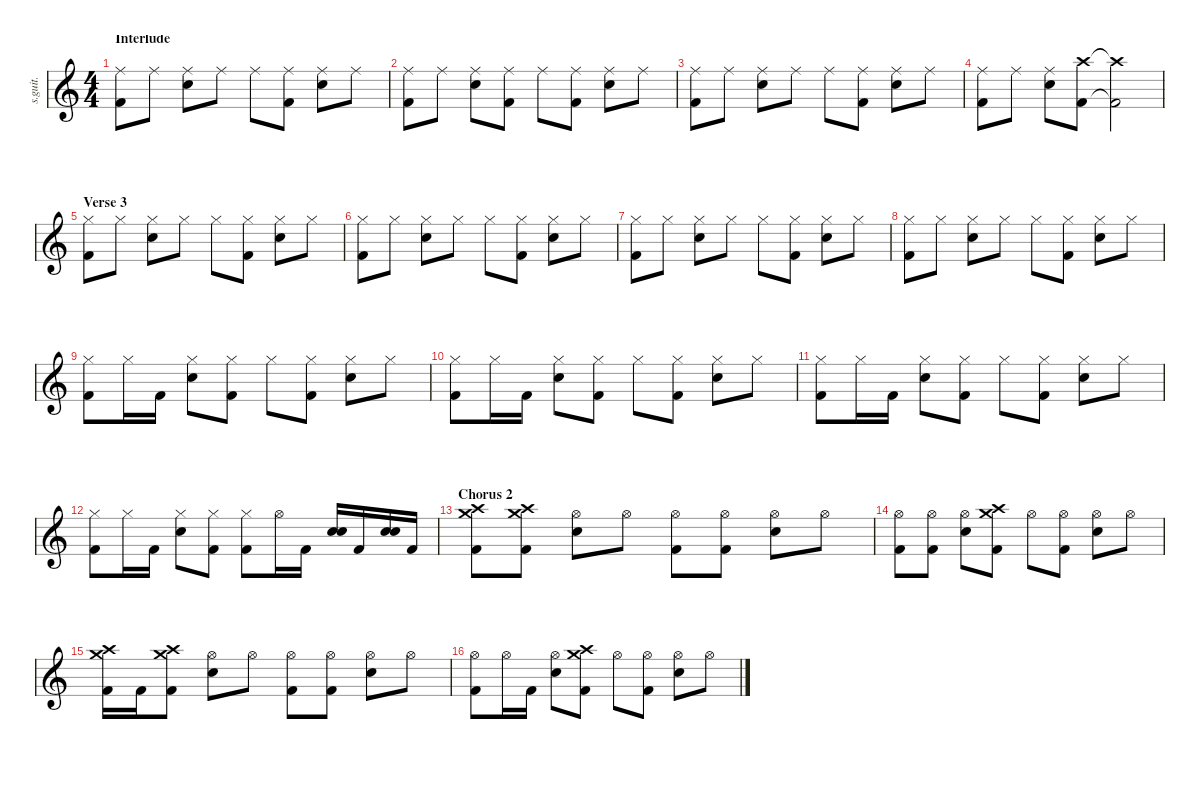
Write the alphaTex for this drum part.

\defaultSystemsLayout 4
\hideDynamics
\bracketExtendMode nobrackets
\track ("Drums (Pat Wilson)" "s.guit.") {instrument percussion}
\staff {score}
\articulation defaults
\ts (4 4)
\section ("" "Interlude")
\tempo (76 hide)
\clef g2
\ks c
("Ride (middle)" "Kick (hit) 2").8{lyrics (0 "") lyrics (1 "") lyrics (2 "") lyrics (3 "") lyrics (4 "") lyrics (5 "") lyrics (6 "") lyrics (7 "") lyrics (8 "") lyrics (9 "") dy f} "Ride (middle)".8{lyrics (0 "") lyrics (1 "") lyrics (2 "") lyrics (3 "") lyrics (4 "") lyrics (5 "") lyrics (6 "") lyrics (7 "") lyrics (8 "") lyrics (9 "")} ("Ride (middle)" "Snare (hit) 2").8{lyrics (0 "") lyrics (1 "") lyrics (2 "") lyrics (3 "") lyrics (4 "") lyrics (5 "") lyrics (6 "") lyrics (7 "") lyrics (8 "") lyrics (9 "")} "Ride (middle)".8{lyrics (0 "") lyrics (1 "") lyrics (2 "") lyrics (3 "") lyrics (4 "") lyrics (5 "") lyrics (6 "") lyrics (7 "") lyrics (8 "") lyrics (9 "")} "Ride (middle)".8{lyrics (0 "") lyrics (1 "") lyrics (2 "") lyrics (3 "") lyrics (4 "") lyrics (5 "") lyrics (6 "") lyrics (7 "") lyrics (8 "") lyrics (9 "")} ("Ride (middle)" "Kick (hit) 2").8{lyrics (0 "") lyrics (1 "") lyrics (2 "") lyrics (3 "") lyrics (4 "") lyrics (5 "") lyrics (6 "") lyrics (7 "") lyrics (8 "") lyrics (9 "")} ("Ride (middle)" "Snare (hit) 2").8{lyrics (0 "") lyrics (1 "") lyrics (2 "") lyrics (3 "") lyrics (4 "") lyrics (5 "") lyrics (6 "") lyrics (7 "") lyrics (8 "") lyrics (9 "")} "Ride (middle)".8{lyrics (0 "") lyrics (1 "") lyrics (2 "") lyrics (3 "") lyrics (4 "") lyrics (5 "") lyrics (6 "") lyrics (7 "") lyrics (8 "") lyrics (9 "")} |
("Ride (middle)" "Kick (hit) 2").8{lyrics (0 "") lyrics (1 "") lyrics (2 "") lyrics (3 "") lyrics (4 "") lyrics (5 "") lyrics (6 "") lyrics (7 "") lyrics (8 "") lyrics (9 "")} "Ride (middle)".8{lyrics (0 "") lyrics (1 "") lyrics (2 "") lyrics (3 "") lyrics (4 "") lyrics (5 "") lyrics (6 "") lyrics (7 "") lyrics (8 "") lyrics (9 "")} ("Ride (middle)" "Snare (hit) 2").8{lyrics (0 "") lyrics (1 "") lyrics (2 "") lyrics (3 "") lyrics (4 "") lyrics (5 "") lyrics (6 "") lyrics (7 "") lyrics (8 "") lyrics (9 "")} ("Ride (middle)" "Kick (hit) 2").8{lyrics (0 "") lyrics (1 "") lyrics (2 "") lyrics (3 "") lyrics (4 "") lyrics (5 "") lyrics (6 "") lyrics (7 "") lyrics (8 "") lyrics (9 "")} "Ride (middle)".8{lyrics (0 "") lyrics (1 "") lyrics (2 "") lyrics (3 "") lyrics (4 "") lyrics (5 "") lyrics (6 "") lyrics (7 "") lyrics (8 "") lyrics (9 "")} ("Ride (middle)" "Kick (hit) 2").8{lyrics (0 "") lyrics (1 "") lyrics (2 "") lyrics (3 "") lyrics (4 "") lyrics (5 "") lyrics (6 "") lyrics (7 "") lyrics (8 "") lyrics (9 "")} ("Ride (middle)" "Snare (hit) 2").8{lyrics (0 "") lyrics (1 "") lyrics (2 "") lyrics (3 "") lyrics (4 "") lyrics (5 "") lyrics (6 "") lyrics (7 "") lyrics (8 "") lyrics (9 "")} "Ride (middle)".8{lyrics (0 "") lyrics (1 "") lyrics (2 "") lyrics (3 "") lyrics (4 "") lyrics (5 "") lyrics (6 "") lyrics (7 "") lyrics (8 "") lyrics (9 "")} |
("Ride (middle)" "Kick (hit) 2").8{lyrics (0 "") lyrics (1 "") lyrics (2 "") lyrics (3 "") lyrics (4 "") lyrics (5 "") lyrics (6 "") lyrics (7 "") lyrics (8 "") lyrics (9 "")} "Ride (middle)".8{lyrics (0 "") lyrics (1 "") lyrics (2 "") lyrics (3 "") lyrics (4 "") lyrics (5 "") lyrics (6 "") lyrics (7 "") lyrics (8 "") lyrics (9 "")} ("Ride (middle)" "Snare (hit) 2").8{lyrics (0 "") lyrics (1 "") lyrics (2 "") lyrics (3 "") lyrics (4 "") lyrics (5 "") lyrics (6 "") lyrics (7 "") lyrics (8 "") lyrics (9 "")} "Ride (middle)".8{lyrics (0 "") lyrics (1 "") lyrics (2 "") lyrics (3 "") lyrics (4 "") lyrics (5 "") lyrics (6 "") lyrics (7 "") lyrics (8 "") lyrics (9 "")} "Ride (middle)".8{lyrics (0 "") lyrics (1 "") lyrics (2 "") lyrics (3 "") lyrics (4 "") lyrics (5 "") lyrics (6 "") lyrics (7 "") lyrics (8 "") lyrics (9 "")} ("Ride (middle)" "Kick (hit) 2").8{lyrics (0 "") lyrics (1 "") lyrics (2 "") lyrics (3 "") lyrics (4 "") lyrics (5 "") lyrics (6 "") lyrics (7 "") lyrics (8 "") lyrics (9 "")} ("Ride (middle)" "Snare (hit) 2").8{lyrics (0 "") lyrics (1 "") lyrics (2 "") lyrics (3 "") lyrics (4 "") lyrics (5 "") lyrics (6 "") lyrics (7 "") lyrics (8 "") lyrics (9 "")} "Ride (middle)".8{lyrics (0 "") lyrics (1 "") lyrics (2 "") lyrics (3 "") lyrics (4 "") lyrics (5 "") lyrics (6 "") lyrics (7 "") lyrics (8 "") lyrics (9 "")} |
("Ride (middle)" "Kick (hit) 2").8{lyrics (0 "") lyrics (1 "") lyrics (2 "") lyrics (3 "") lyrics (4 "") lyrics (5 "") lyrics (6 "") lyrics (7 "") lyrics (8 "") lyrics (9 "")} "Ride (middle)".8{lyrics (0 "") lyrics (1 "") lyrics (2 "") lyrics (3 "") lyrics (4 "") lyrics (5 "") lyrics (6 "") lyrics (7 "") lyrics (8 "") lyrics (9 "")} ("Ride (middle)" "Snare (hit) 2").8{lyrics (0 "") lyrics (1 "") lyrics (2 "") lyrics (3 "") lyrics (4 "") lyrics (5 "") lyrics (6 "") lyrics (7 "") lyrics (8 "") lyrics (9 "")} ("Crash high (hit)" "Kick (hit) 2").8{lyrics (0 "") lyrics (1 "") lyrics (2 "") lyrics (3 "") lyrics (4 "") lyrics (5 "") lyrics (6 "") lyrics (7 "") lyrics (8 "") lyrics (9 "")} ("Crash high (hit)"{t} "Kick (hit) 2"{t}).2{lyrics (0 "") lyrics (1 "") lyrics (2 "") lyrics (3 "") lyrics (4 "") lyrics (5 "") lyrics (6 "") lyrics (7 "") lyrics (8 "") lyrics (9 "")} |
\section ("" "Verse 3")
("Hi-Hat (closed)" "Kick (hit) 2").8{lyrics (0 "") lyrics (1 "") lyrics (2 "") lyrics (3 "") lyrics (4 "") lyrics (5 "") lyrics (6 "") lyrics (7 "") lyrics (8 "") lyrics (9 "")} "Hi-Hat (closed)".8{lyrics (0 "") lyrics (1 "") lyrics (2 "") lyrics (3 "") lyrics (4 "") lyrics (5 "") lyrics (6 "") lyrics (7 "") lyrics (8 "") lyrics (9 "")} ("Hi-Hat (closed)" "Snare (hit) 2").8{lyrics (0 "") lyrics (1 "") lyrics (2 "") lyrics (3 "") lyrics (4 "") lyrics (5 "") lyrics (6 "") lyrics (7 "") lyrics (8 "") lyrics (9 "")} "Hi-Hat (closed)".8{lyrics (0 "") lyrics (1 "") lyrics (2 "") lyrics (3 "") lyrics (4 "") lyrics (5 "") lyrics (6 "") lyrics (7 "") lyrics (8 "") lyrics (9 "")} "Hi-Hat (closed)".8{lyrics (0 "") lyrics (1 "") lyrics (2 "") lyrics (3 "") lyrics (4 "") lyrics (5 "") lyrics (6 "") lyrics (7 "") lyrics (8 "") lyrics (9 "")} ("Hi-Hat (closed)" "Kick (hit) 2").8{lyrics (0 "") lyrics (1 "") lyrics (2 "") lyrics (3 "") lyrics (4 "") lyrics (5 "") lyrics (6 "") lyrics (7 "") lyrics (8 "") lyrics (9 "")} ("Hi-Hat (closed)" "Snare (hit) 2").8{lyrics (0 "") lyrics (1 "") lyrics (2 "") lyrics (3 "") lyrics (4 "") lyrics (5 "") lyrics (6 "") lyrics (7 "") lyrics (8 "") lyrics (9 "")} "Hi-Hat (closed)".8{lyrics (0 "") lyrics (1 "") lyrics (2 "") lyrics (3 "") lyrics (4 "") lyrics (5 "") lyrics (6 "") lyrics (7 "") lyrics (8 "") lyrics (9 "")} |
("Hi-Hat (closed)" "Kick (hit) 2").8{lyrics (0 "") lyrics (1 "") lyrics (2 "") lyrics (3 "") lyrics (4 "") lyrics (5 "") lyrics (6 "") lyrics (7 "") lyrics (8 "") lyrics (9 "")} "Hi-Hat (closed)".8{lyrics (0 "") lyrics (1 "") lyrics (2 "") lyrics (3 "") lyrics (4 "") lyrics (5 "") lyrics (6 "") lyrics (7 "") lyrics (8 "") lyrics (9 "")} ("Hi-Hat (closed)" "Snare (hit) 2").8{lyrics (0 "") lyrics (1 "") lyrics (2 "") lyrics (3 "") lyrics (4 "") lyrics (5 "") lyrics (6 "") lyrics (7 "") lyrics (8 "") lyrics (9 "")} "Hi-Hat (closed)".8{lyrics (0 "") lyrics (1 "") lyrics (2 "") lyrics (3 "") lyrics (4 "") lyrics (5 "") lyrics (6 "") lyrics (7 "") lyrics (8 "") lyrics (9 "")} "Hi-Hat (closed)".8{lyrics (0 "") lyrics (1 "") lyrics (2 "") lyrics (3 "") lyrics (4 "") lyrics (5 "") lyrics (6 "") lyrics (7 "") lyrics (8 "") lyrics (9 "")} ("Hi-Hat (closed)" "Kick (hit) 2").8{lyrics (0 "") lyrics (1 "") lyrics (2 "") lyrics (3 "") lyrics (4 "") lyrics (5 "") lyrics (6 "") lyrics (7 "") lyrics (8 "") lyrics (9 "")} ("Hi-Hat (closed)" "Snare (hit) 2").8{lyrics (0 "") lyrics (1 "") lyrics (2 "") lyrics (3 "") lyrics (4 "") lyrics (5 "") lyrics (6 "") lyrics (7 "") lyrics (8 "") lyrics (9 "")} "Hi-Hat (closed)".8{lyrics (0 "") lyrics (1 "") lyrics (2 "") lyrics (3 "") lyrics (4 "") lyrics (5 "") lyrics (6 "") lyrics (7 "") lyrics (8 "") lyrics (9 "")} |
("Hi-Hat (closed)" "Kick (hit) 2").8{lyrics (0 "") lyrics (1 "") lyrics (2 "") lyrics (3 "") lyrics (4 "") lyrics (5 "") lyrics (6 "") lyrics (7 "") lyrics (8 "") lyrics (9 "")} "Hi-Hat (closed)".8{lyrics (0 "") lyrics (1 "") lyrics (2 "") lyrics (3 "") lyrics (4 "") lyrics (5 "") lyrics (6 "") lyrics (7 "") lyrics (8 "") lyrics (9 "")} ("Hi-Hat (closed)" "Snare (hit) 2").8{lyrics (0 "") lyrics (1 "") lyrics (2 "") lyrics (3 "") lyrics (4 "") lyrics (5 "") lyrics (6 "") lyrics (7 "") lyrics (8 "") lyrics (9 "")} "Hi-Hat (closed)".8{lyrics (0 "") lyrics (1 "") lyrics (2 "") lyrics (3 "") lyrics (4 "") lyrics (5 "") lyrics (6 "") lyrics (7 "") lyrics (8 "") lyrics (9 "")} "Hi-Hat (closed)".8{lyrics (0 "") lyrics (1 "") lyrics (2 "") lyrics (3 "") lyrics (4 "") lyrics (5 "") lyrics (6 "") lyrics (7 "") lyrics (8 "") lyrics (9 "")} ("Hi-Hat (closed)" "Kick (hit) 2").8{lyrics (0 "") lyrics (1 "") lyrics (2 "") lyrics (3 "") lyrics (4 "") lyrics (5 "") lyrics (6 "") lyrics (7 "") lyrics (8 "") lyrics (9 "")} ("Hi-Hat (closed)" "Snare (hit) 2").8{lyrics (0 "") lyrics (1 "") lyrics (2 "") lyrics (3 "") lyrics (4 "") lyrics (5 "") lyrics (6 "") lyrics (7 "") lyrics (8 "") lyrics (9 "")} "Hi-Hat (closed)".8{lyrics (0 "") lyrics (1 "") lyrics (2 "") lyrics (3 "") lyrics (4 "") lyrics (5 "") lyrics (6 "") lyrics (7 "") lyrics (8 "") lyrics (9 "")} |
("Hi-Hat (closed)" "Kick (hit) 2").8{lyrics (0 "") lyrics (1 "") lyrics (2 "") lyrics (3 "") lyrics (4 "") lyrics (5 "") lyrics (6 "") lyrics (7 "") lyrics (8 "") lyrics (9 "")} "Hi-Hat (closed)".8{lyrics (0 "") lyrics (1 "") lyrics (2 "") lyrics (3 "") lyrics (4 "") lyrics (5 "") lyrics (6 "") lyrics (7 "") lyrics (8 "") lyrics (9 "")} ("Hi-Hat (closed)" "Snare (hit) 2").8{lyrics (0 "") lyrics (1 "") lyrics (2 "") lyrics (3 "") lyrics (4 "") lyrics (5 "") lyrics (6 "") lyrics (7 "") lyrics (8 "") lyrics (9 "")} "Hi-Hat (closed)".8{lyrics (0 "") lyrics (1 "") lyrics (2 "") lyrics (3 "") lyrics (4 "") lyrics (5 "") lyrics (6 "") lyrics (7 "") lyrics (8 "") lyrics (9 "")} "Hi-Hat (closed)".8{lyrics (0 "") lyrics (1 "") lyrics (2 "") lyrics (3 "") lyrics (4 "") lyrics (5 "") lyrics (6 "") lyrics (7 "") lyrics (8 "") lyrics (9 "")} ("Hi-Hat (closed)" "Kick (hit) 2").8{lyrics (0 "") lyrics (1 "") lyrics (2 "") lyrics (3 "") lyrics (4 "") lyrics (5 "") lyrics (6 "") lyrics (7 "") lyrics (8 "") lyrics (9 "")} ("Hi-Hat (closed)" "Snare (hit) 2").8{lyrics (0 "") lyrics (1 "") lyrics (2 "") lyrics (3 "") lyrics (4 "") lyrics (5 "") lyrics (6 "") lyrics (7 "") lyrics (8 "") lyrics (9 "")} "Hi-Hat (closed)".8{lyrics (0 "") lyrics (1 "") lyrics (2 "") lyrics (3 "") lyrics (4 "") lyrics (5 "") lyrics (6 "") lyrics (7 "") lyrics (8 "") lyrics (9 "")} |
("Hi-Hat (closed)" "Kick (hit) 2").8{lyrics (0 "") lyrics (1 "") lyrics (2 "") lyrics (3 "") lyrics (4 "") lyrics (5 "") lyrics (6 "") lyrics (7 "") lyrics (8 "") lyrics (9 "")} "Hi-Hat (closed)".16{lyrics (0 "") lyrics (1 "") lyrics (2 "") lyrics (3 "") lyrics (4 "") lyrics (5 "") lyrics (6 "") lyrics (7 "") lyrics (8 "") lyrics (9 "")} "Kick (hit) 2".16{lyrics (0 "") lyrics (1 "") lyrics (2 "") lyrics (3 "") lyrics (4 "") lyrics (5 "") lyrics (6 "") lyrics (7 "") lyrics (8 "") lyrics (9 "")} ("Hi-Hat (closed)" "Snare (hit) 2").8{lyrics (0 "") lyrics (1 "") lyrics (2 "") lyrics (3 "") lyrics (4 "") lyrics (5 "") lyrics (6 "") lyrics (7 "") lyrics (8 "") lyrics (9 "")} ("Hi-Hat (closed)" "Kick (hit) 2").8{lyrics (0 "") lyrics (1 "") lyrics (2 "") lyrics (3 "") lyrics (4 "") lyrics (5 "") lyrics (6 "") lyrics (7 "") lyrics (8 "") lyrics (9 "")} "Hi-Hat (closed)".8{lyrics (0 "") lyrics (1 "") lyrics (2 "") lyrics (3 "") lyrics (4 "") lyrics (5 "") lyrics (6 "") lyrics (7 "") lyrics (8 "") lyrics (9 "")} ("Hi-Hat (closed)" "Kick (hit) 2").8{lyrics (0 "") lyrics (1 "") lyrics (2 "") lyrics (3 "") lyrics (4 "") lyrics (5 "") lyrics (6 "") lyrics (7 "") lyrics (8 "") lyrics (9 "")} ("Hi-Hat (closed)" "Snare (hit) 2").8{lyrics (0 "") lyrics (1 "") lyrics (2 "") lyrics (3 "") lyrics (4 "") lyrics (5 "") lyrics (6 "") lyrics (7 "") lyrics (8 "") lyrics (9 "")} "Hi-Hat (closed)".8{lyrics (0 "") lyrics (1 "") lyrics (2 "") lyrics (3 "") lyrics (4 "") lyrics (5 "") lyrics (6 "") lyrics (7 "") lyrics (8 "") lyrics (9 "")} |
("Hi-Hat (closed)" "Kick (hit) 2").8{lyrics (0 "") lyrics (1 "") lyrics (2 "") lyrics (3 "") lyrics (4 "") lyrics (5 "") lyrics (6 "") lyrics (7 "") lyrics (8 "") lyrics (9 "")} "Hi-Hat (closed)".16{lyrics (0 "") lyrics (1 "") lyrics (2 "") lyrics (3 "") lyrics (4 "") lyrics (5 "") lyrics (6 "") lyrics (7 "") lyrics (8 "") lyrics (9 "")} "Kick (hit) 2".16{lyrics (0 "") lyrics (1 "") lyrics (2 "") lyrics (3 "") lyrics (4 "") lyrics (5 "") lyrics (6 "") lyrics (7 "") lyrics (8 "") lyrics (9 "")} ("Hi-Hat (closed)" "Snare (hit) 2").8{lyrics (0 "") lyrics (1 "") lyrics (2 "") lyrics (3 "") lyrics (4 "") lyrics (5 "") lyrics (6 "") lyrics (7 "") lyrics (8 "") lyrics (9 "")} ("Hi-Hat (closed)" "Kick (hit) 2").8{lyrics (0 "") lyrics (1 "") lyrics (2 "") lyrics (3 "") lyrics (4 "") lyrics (5 "") lyrics (6 "") lyrics (7 "") lyrics (8 "") lyrics (9 "")} "Hi-Hat (closed)".8{lyrics (0 "") lyrics (1 "") lyrics (2 "") lyrics (3 "") lyrics (4 "") lyrics (5 "") lyrics (6 "") lyrics (7 "") lyrics (8 "") lyrics (9 "")} ("Hi-Hat (closed)" "Kick (hit) 2").8{lyrics (0 "") lyrics (1 "") lyrics (2 "") lyrics (3 "") lyrics (4 "") lyrics (5 "") lyrics (6 "") lyrics (7 "") lyrics (8 "") lyrics (9 "")} ("Hi-Hat (closed)" "Snare (hit) 2").8{lyrics (0 "") lyrics (1 "") lyrics (2 "") lyrics (3 "") lyrics (4 "") lyrics (5 "") lyrics (6 "") lyrics (7 "") lyrics (8 "") lyrics (9 "")} "Hi-Hat (closed)".8{lyrics (0 "") lyrics (1 "") lyrics (2 "") lyrics (3 "") lyrics (4 "") lyrics (5 "") lyrics (6 "") lyrics (7 "") lyrics (8 "") lyrics (9 "")} |
("Hi-Hat (closed)" "Kick (hit) 2").8{lyrics (0 "") lyrics (1 "") lyrics (2 "") lyrics (3 "") lyrics (4 "") lyrics (5 "") lyrics (6 "") lyrics (7 "") lyrics (8 "") lyrics (9 "")} "Hi-Hat (closed)".16{lyrics (0 "") lyrics (1 "") lyrics (2 "") lyrics (3 "") lyrics (4 "") lyrics (5 "") lyrics (6 "") lyrics (7 "") lyrics (8 "") lyrics (9 "")} "Kick (hit) 2".16{lyrics (0 "") lyrics (1 "") lyrics (2 "") lyrics (3 "") lyrics (4 "") lyrics (5 "") lyrics (6 "") lyrics (7 "") lyrics (8 "") lyrics (9 "")} ("Hi-Hat (closed)" "Snare (hit) 2").8{lyrics (0 "") lyrics (1 "") lyrics (2 "") lyrics (3 "") lyrics (4 "") lyrics (5 "") lyrics (6 "") lyrics (7 "") lyrics (8 "") lyrics (9 "")} ("Hi-Hat (closed)" "Kick (hit) 2").8{lyrics (0 "") lyrics (1 "") lyrics (2 "") lyrics (3 "") lyrics (4 "") lyrics (5 "") lyrics (6 "") lyrics (7 "") lyrics (8 "") lyrics (9 "")} "Hi-Hat (closed)".8{lyrics (0 "") lyrics (1 "") lyrics (2 "") lyrics (3 "") lyrics (4 "") lyrics (5 "") lyrics (6 "") lyrics (7 "") lyrics (8 "") lyrics (9 "")} ("Hi-Hat (closed)" "Kick (hit) 2").8{lyrics (0 "") lyrics (1 "") lyrics (2 "") lyrics (3 "") lyrics (4 "") lyrics (5 "") lyrics (6 "") lyrics (7 "") lyrics (8 "") lyrics (9 "")} ("Hi-Hat (closed)" "Snare (hit) 2").8{lyrics (0 "") lyrics (1 "") lyrics (2 "") lyrics (3 "") lyrics (4 "") lyrics (5 "") lyrics (6 "") lyrics (7 "") lyrics (8 "") lyrics (9 "")} "Hi-Hat (closed)".8{lyrics (0 "") lyrics (1 "") lyrics (2 "") lyrics (3 "") lyrics (4 "") lyrics (5 "") lyrics (6 "") lyrics (7 "") lyrics (8 "") lyrics (9 "")} |
("Hi-Hat (closed)" "Kick (hit) 2").8{lyrics (0 "") lyrics (1 "") lyrics (2 "") lyrics (3 "") lyrics (4 "") lyrics (5 "") lyrics (6 "") lyrics (7 "") lyrics (8 "") lyrics (9 "")} "Hi-Hat (closed)".16{lyrics (0 "") lyrics (1 "") lyrics (2 "") lyrics (3 "") lyrics (4 "") lyrics (5 "") lyrics (6 "") lyrics (7 "") lyrics (8 "") lyrics (9 "")} "Kick (hit) 2".16{lyrics (0 "") lyrics (1 "") lyrics (2 "") lyrics (3 "") lyrics (4 "") lyrics (5 "") lyrics (6 "") lyrics (7 "") lyrics (8 "") lyrics (9 "")} ("Hi-Hat (closed)" "Snare (hit) 2").8{lyrics (0 "") lyrics (1 "") lyrics (2 "") lyrics (3 "") lyrics (4 "") lyrics (5 "") lyrics (6 "") lyrics (7 "") lyrics (8 "") lyrics (9 "")} ("Hi-Hat (closed)" "Kick (hit) 2").8{lyrics (0 "") lyrics (1 "") lyrics (2 "") lyrics (3 "") lyrics (4 "") lyrics (5 "") lyrics (6 "") lyrics (7 "") lyrics (8 "") lyrics (9 "")} ("Hi-Hat (closed)" "Kick (hit) 2").8{lyrics (0 "") lyrics (1 "") lyrics (2 "") lyrics (3 "") lyrics (4 "") lyrics (5 "") lyrics (6 "") lyrics (7 "") lyrics (8 "") lyrics (9 "")} "Hi-Hat (open)".16{lyrics (0 "") lyrics (1 "") lyrics (2 "") lyrics (3 "") lyrics (4 "") lyrics (5 "") lyrics (6 "") lyrics (7 "") lyrics (8 "") lyrics (9 "")} "Kick (hit) 2".16{lyrics (0 "") lyrics (1 "") lyrics (2 "") lyrics (3 "") lyrics (4 "") lyrics (5 "") lyrics (6 "") lyrics (7 "") lyrics (8 "") lyrics (9 "")} ("Snare (hit) 2" "Snare (hit) 2").16{bd 30 lyrics (0 "") lyrics (1 "") lyrics (2 "") lyrics (3 "") lyrics (4 "") lyrics (5 "") lyrics (6 "") lyrics (7 "") lyrics (8 "") lyrics (9 "")} "Kick (hit) 2".16{lyrics (0 "") lyrics (1 "") lyrics (2 "") lyrics (3 "") lyrics (4 "") lyrics (5 "") lyrics (6 "") lyrics (7 "") lyrics (8 "") lyrics (9 "")} ("Snare (hit) 2" "Snare (hit) 2").16{bd 30 lyrics (0 "") lyrics (1 "") lyrics (2 "") lyrics (3 "") lyrics (4 "") lyrics (5 "") lyrics (6 "") lyrics (7 "") lyrics (8 "") lyrics (9 "")} "Kick (hit) 2".16{lyrics (0 "") lyrics (1 "") lyrics (2 "") lyrics (3 "") lyrics (4 "") lyrics (5 "") lyrics (6 "") lyrics (7 "") lyrics (8 "") lyrics (9 "")} |
\section ("" "Chorus 2")
("Crash high (hit)" "Crash medium (hit)" "Kick (hit) 2").8{lyrics (0 "") lyrics (1 "") lyrics (2 "") lyrics (3 "") lyrics (4 "") lyrics (5 "") lyrics (6 "") lyrics (7 "") lyrics (8 "") lyrics (9 "")} ("Crash high (hit)" "Crash medium (hit)" "Kick (hit) 2").8{lyrics (0 "") lyrics (1 "") lyrics (2 "") lyrics (3 "") lyrics (4 "") lyrics (5 "") lyrics (6 "") lyrics (7 "") lyrics (8 "") lyrics (9 "")} ("Hi-Hat (open)" "Snare (hit) 2").8{lyrics (0 "") lyrics (1 "") lyrics (2 "") lyrics (3 "") lyrics (4 "") lyrics (5 "") lyrics (6 "") lyrics (7 "") lyrics (8 "") lyrics (9 "")} "Hi-Hat (open)".8{lyrics (0 "") lyrics (1 "") lyrics (2 "") lyrics (3 "") lyrics (4 "") lyrics (5 "") lyrics (6 "") lyrics (7 "") lyrics (8 "") lyrics (9 "")} ("Hi-Hat (open)" "Kick (hit) 2").8{lyrics (0 "") lyrics (1 "") lyrics (2 "") lyrics (3 "") lyrics (4 "") lyrics (5 "") lyrics (6 "") lyrics (7 "") lyrics (8 "") lyrics (9 "")} ("Hi-Hat (open)" "Kick (hit) 2").8{lyrics (0 "") lyrics (1 "") lyrics (2 "") lyrics (3 "") lyrics (4 "") lyrics (5 "") lyrics (6 "") lyrics (7 "") lyrics (8 "") lyrics (9 "")} ("Hi-Hat (open)" "Snare (hit) 2").8{lyrics (0 "") lyrics (1 "") lyrics (2 "") lyrics (3 "") lyrics (4 "") lyrics (5 "") lyrics (6 "") lyrics (7 "") lyrics (8 "") lyrics (9 "")} "Hi-Hat (open)".8{lyrics (0 "") lyrics (1 "") lyrics (2 "") lyrics (3 "") lyrics (4 "") lyrics (5 "") lyrics (6 "") lyrics (7 "") lyrics (8 "") lyrics (9 "")} |
("Hi-Hat (open)" "Kick (hit) 2").8{lyrics (0 "") lyrics (1 "") lyrics (2 "") lyrics (3 "") lyrics (4 "") lyrics (5 "") lyrics (6 "") lyrics (7 "") lyrics (8 "") lyrics (9 "")} ("Hi-Hat (open)" "Kick (hit) 2").8{lyrics (0 "") lyrics (1 "") lyrics (2 "") lyrics (3 "") lyrics (4 "") lyrics (5 "") lyrics (6 "") lyrics (7 "") lyrics (8 "") lyrics (9 "")} ("Hi-Hat (open)" "Snare (hit) 2").8{lyrics (0 "") lyrics (1 "") lyrics (2 "") lyrics (3 "") lyrics (4 "") lyrics (5 "") lyrics (6 "") lyrics (7 "") lyrics (8 "") lyrics (9 "")} ("Crash high (hit)" "Crash medium (hit)" "Kick (hit) 2").8{lyrics (0 "") lyrics (1 "") lyrics (2 "") lyrics (3 "") lyrics (4 "") lyrics (5 "") lyrics (6 "") lyrics (7 "") lyrics (8 "") lyrics (9 "")} "Hi-Hat (open)".8{lyrics (0 "") lyrics (1 "") lyrics (2 "") lyrics (3 "") lyrics (4 "") lyrics (5 "") lyrics (6 "") lyrics (7 "") lyrics (8 "") lyrics (9 "")} ("Hi-Hat (open)" "Kick (hit) 2").8{lyrics (0 "") lyrics (1 "") lyrics (2 "") lyrics (3 "") lyrics (4 "") lyrics (5 "") lyrics (6 "") lyrics (7 "") lyrics (8 "") lyrics (9 "")} ("Hi-Hat (open)" "Snare (hit) 2").8{lyrics (0 "") lyrics (1 "") lyrics (2 "") lyrics (3 "") lyrics (4 "") lyrics (5 "") lyrics (6 "") lyrics (7 "") lyrics (8 "") lyrics (9 "")} "Hi-Hat (open)".8{lyrics (0 "") lyrics (1 "") lyrics (2 "") lyrics (3 "") lyrics (4 "") lyrics (5 "") lyrics (6 "") lyrics (7 "") lyrics (8 "") lyrics (9 "")} |
("Crash high (hit)" "Crash medium (hit)" "Kick (hit) 2").16{lyrics (0 "") lyrics (1 "") lyrics (2 "") lyrics (3 "") lyrics (4 "") lyrics (5 "") lyrics (6 "") lyrics (7 "") lyrics (8 "") lyrics (9 "")} "Kick (hit) 2".16{lyrics (0 "") lyrics (1 "") lyrics (2 "") lyrics (3 "") lyrics (4 "") lyrics (5 "") lyrics (6 "") lyrics (7 "") lyrics (8 "") lyrics (9 "")} ("Crash high (hit)" "Crash medium (hit)" "Kick (hit) 2").8{lyrics (0 "") lyrics (1 "") lyrics (2 "") lyrics (3 "") lyrics (4 "") lyrics (5 "") lyrics (6 "") lyrics (7 "") lyrics (8 "") lyrics (9 "")} ("Hi-Hat (open)" "Snare (hit) 2").8{lyrics (0 "") lyrics (1 "") lyrics (2 "") lyrics (3 "") lyrics (4 "") lyrics (5 "") lyrics (6 "") lyrics (7 "") lyrics (8 "") lyrics (9 "")} "Hi-Hat (open)".8{lyrics (0 "") lyrics (1 "") lyrics (2 "") lyrics (3 "") lyrics (4 "") lyrics (5 "") lyrics (6 "") lyrics (7 "") lyrics (8 "") lyrics (9 "")} ("Hi-Hat (open)" "Kick (hit) 2").8{lyrics (0 "") lyrics (1 "") lyrics (2 "") lyrics (3 "") lyrics (4 "") lyrics (5 "") lyrics (6 "") lyrics (7 "") lyrics (8 "") lyrics (9 "")} ("Hi-Hat (open)" "Kick (hit) 2").8{lyrics (0 "") lyrics (1 "") lyrics (2 "") lyrics (3 "") lyrics (4 "") lyrics (5 "") lyrics (6 "") lyrics (7 "") lyrics (8 "") lyrics (9 "")} ("Hi-Hat (open)" "Snare (hit) 2").8{lyrics (0 "") lyrics (1 "") lyrics (2 "") lyrics (3 "") lyrics (4 "") lyrics (5 "") lyrics (6 "") lyrics (7 "") lyrics (8 "") lyrics (9 "")} "Hi-Hat (open)".8{lyrics (0 "") lyrics (1 "") lyrics (2 "") lyrics (3 "") lyrics (4 "") lyrics (5 "") lyrics (6 "") lyrics (7 "") lyrics (8 "") lyrics (9 "")} |
("Hi-Hat (open)" "Kick (hit) 2").8{lyrics (0 "") lyrics (1 "") lyrics (2 "") lyrics (3 "") lyrics (4 "") lyrics (5 "") lyrics (6 "") lyrics (7 "") lyrics (8 "") lyrics (9 "")} "Hi-Hat (open)".16{lyrics (0 "") lyrics (1 "") lyrics (2 "") lyrics (3 "") lyrics (4 "") lyrics (5 "") lyrics (6 "") lyrics (7 "") lyrics (8 "") lyrics (9 "")} "Kick (hit) 2".16{lyrics (0 "") lyrics (1 "") lyrics (2 "") lyrics (3 "") lyrics (4 "") lyrics (5 "") lyrics (6 "") lyrics (7 "") lyrics (8 "") lyrics (9 "")} ("Hi-Hat (open)" "Snare (hit) 2").8{lyrics (0 "") lyrics (1 "") lyrics (2 "") lyrics (3 "") lyrics (4 "") lyrics (5 "") lyrics (6 "") lyrics (7 "") lyrics (8 "") lyrics (9 "")} ("Crash high (hit)" "Crash medium (hit)" "Kick (hit) 2").8{lyrics (0 "") lyrics (1 "") lyrics (2 "") lyrics (3 "") lyrics (4 "") lyrics (5 "") lyrics (6 "") lyrics (7 "") lyrics (8 "") lyrics (9 "")} "Hi-Hat (open)".8{lyrics (0 "") lyrics (1 "") lyrics (2 "") lyrics (3 "") lyrics (4 "") lyrics (5 "") lyrics (6 "") lyrics (7 "") lyrics (8 "") lyrics (9 "")} ("Hi-Hat (open)" "Kick (hit) 2").8{lyrics (0 "") lyrics (1 "") lyrics (2 "") lyrics (3 "") lyrics (4 "") lyrics (5 "") lyrics (6 "") lyrics (7 "") lyrics (8 "") lyrics (9 "")} ("Hi-Hat (open)" "Snare (hit) 2").8{lyrics (0 "") lyrics (1 "") lyrics (2 "") lyrics (3 "") lyrics (4 "") lyrics (5 "") lyrics (6 "") lyrics (7 "") lyrics (8 "") lyrics (9 "")} "Hi-Hat (open)".8{lyrics (0 "") lyrics (1 "") lyrics (2 "") lyrics (3 "") lyrics (4 "") lyrics (5 "") lyrics (6 "") lyrics (7 "") lyrics (8 "") lyrics (9 "")}
